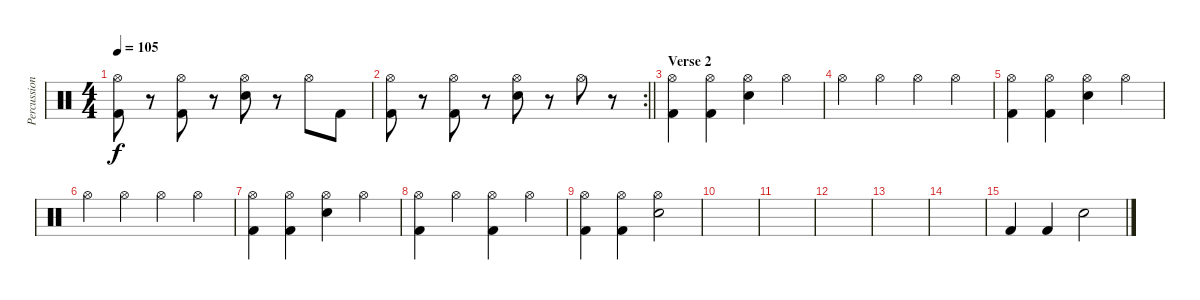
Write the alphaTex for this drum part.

\track ("Percussion" "Percussion") {instrument percussion}
\staff {score}
\articulation defaults
\ts (4 4)
\tempo 105
\clef neutral
\ks c
("Hi-Hat (open)" "Kick (hit) 2").8{dy f} r.8 ("Hi-Hat (open)" "Kick (hit) 2").8 r.8 ("Hi-Hat (open)" "Electric Snare (hit)").8 r.8 "Hi-Hat (open)".8 "Kick (hit) 2".8 |
\rc 2
\barLineRight lightlight
("Hi-Hat (open)" "Kick (hit) 2").8 r.8 ("Hi-Hat (open)" "Kick (hit) 2").8 r.8 ("Hi-Hat (open)" "Electric Snare (hit)").8 r.8 "Hi-Hat (open)".8 r.8 |
\section ("" "Verse 2")
("Hi-Hat (open)" "Kick (hit) 2").4 ("Hi-Hat (open)" "Kick (hit) 2").4 ("Hi-Hat (open)" "Electric Snare (hit)").4 "Hi-Hat (open)".4 |
"Hi-Hat (open)".4 "Hi-Hat (open)".4 "Hi-Hat (open)".4 "Hi-Hat (open)".4 |
("Hi-Hat (open)" "Kick (hit) 2").4 ("Hi-Hat (open)" "Kick (hit) 2").4 ("Hi-Hat (open)" "Electric Snare (hit)").4 "Hi-Hat (open)".4 |
"Hi-Hat (open)".4 "Hi-Hat (open)".4 "Hi-Hat (open)".4 "Hi-Hat (open)".4 |
("Hi-Hat (open)" "Kick (hit) 2").4 ("Hi-Hat (open)" "Kick (hit) 2").4 ("Hi-Hat (open)" "Electric Snare (hit)").4 "Hi-Hat (open)".4 |
("Hi-Hat (open)" "Kick (hit) 2").4 "Hi-Hat (open)".4 ("Hi-Hat (open)" "Kick (hit) 2").4 "Hi-Hat (open)".4 |
("Hi-Hat (open)" "Kick (hit) 2").4 ("Hi-Hat (open)" "Kick (hit) 2").4 ("Hi-Hat (open)" "Electric Snare (hit)").2 |
|
|
|
|
|
"Kick (hit) 2".4 "Kick (hit) 2".4 "Electric Snare (hit)".2
